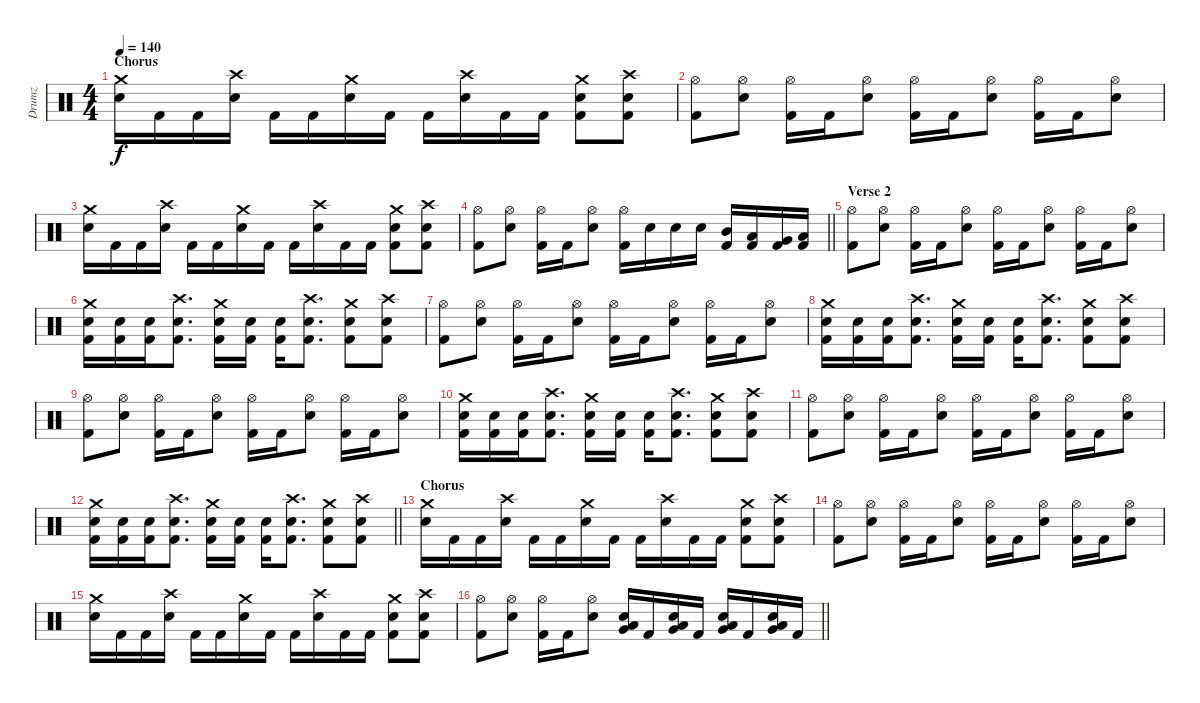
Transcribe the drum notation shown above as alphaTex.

\track ("Drumz" "Drumz") {instrument percussion}
\staff {score}
\articulation defaults
\ts (4 4)
\section ("" "Chorus")
\tempo 140
\clef neutral
\ks c
("Crash medium (hit)" "Electric Snare (hit)").16{dy f} "Kick (hit) 2".16 "Kick (hit) 2".16 ("Crash high (hit)" "Electric Snare (hit)").16 "Kick (hit) 2".16 "Kick (hit) 2".16 ("Crash medium (hit)" "Electric Snare (hit)").16 "Kick (hit) 2".16 "Kick (hit) 2".16 ("Crash high (hit)" "Electric Snare (hit)").16 "Kick (hit) 2".16 "Kick (hit) 2".16 ("Crash medium (hit)" "Electric Snare (hit)" "Kick (hit) 2").8 ("Crash high (hit)" "Electric Snare (hit)" "Kick (hit) 2").8 |
("Hi-Hat (open)" "Kick (hit) 2").8 ("Hi-Hat (open)" "Electric Snare (hit)").8 ("Hi-Hat (open)" "Kick (hit) 2").16 "Kick (hit) 2".16 ("Hi-Hat (open)" "Electric Snare (hit)").8 ("Hi-Hat (open)" "Kick (hit) 2").16 "Kick (hit) 2".16 ("Hi-Hat (open)" "Electric Snare (hit)").8 ("Hi-Hat (open)" "Kick (hit) 2").16 "Kick (hit) 2".16 ("Hi-Hat (open)" "Electric Snare (hit)").8 |
("Crash medium (hit)" "Electric Snare (hit)").16 "Kick (hit) 2".16 "Kick (hit) 2".16 ("Crash high (hit)" "Electric Snare (hit)").16 "Kick (hit) 2".16 "Kick (hit) 2".16 ("Crash medium (hit)" "Electric Snare (hit)").16 "Kick (hit) 2".16 "Kick (hit) 2".16 ("Crash high (hit)" "Electric Snare (hit)").16 "Kick (hit) 2".16 "Kick (hit) 2".16 ("Crash medium (hit)" "Electric Snare (hit)" "Kick (hit) 2").8 ("Crash high (hit)" "Electric Snare (hit)" "Kick (hit) 2").8 |
\barLineRight lightlight
("Hi-Hat (open)" "Kick (hit) 2").8 ("Hi-Hat (open)" "Electric Snare (hit)").8 ("Hi-Hat (open)" "Kick (hit) 2").16 "Kick (hit) 2".16 ("Hi-Hat (open)" "Electric Snare (hit)").8 ("Hi-Hat (open)" "Kick (hit) 2").16 "Electric Snare (hit)".16 "Electric Snare (hit)".16 "Electric Snare (hit)".16 ("Mid Tom (hit)" "Kick (hit) 2").16 ("Low Tom (hit)" "Kick (hit) 2").16 ("Very Low Tom (hit)" "Kick (hit) 2").16 ("Low Floor Tom (hit)" "Kick (hit) 2").16 |
\section ("" "Verse 2")
("Hi-Hat (open)" "Kick (hit) 2").8 ("Hi-Hat (open)" "Electric Snare (hit)").8 ("Hi-Hat (open)" "Kick (hit) 2").16 "Kick (hit) 2".16 ("Hi-Hat (open)" "Electric Snare (hit)").8 ("Hi-Hat (open)" "Kick (hit) 2").16 "Kick (hit) 2".16 ("Hi-Hat (open)" "Electric Snare (hit)").8 ("Hi-Hat (open)" "Kick (hit) 2").16 "Kick (hit) 2".16 ("Hi-Hat (open)" "Electric Snare (hit)").8 |
("Crash medium (hit)" "Electric Snare (hit)" "Kick (hit) 2").16 ("Electric Snare (hit)" "Kick (hit) 2").16 ("Electric Snare (hit)" "Kick (hit) 2").16 ("Crash high (hit)" "Electric Snare (hit)" "Kick (hit) 2").8{d} ("Crash medium (hit)" "Electric Snare (hit)" "Kick (hit) 2").16 ("Electric Snare (hit)" "Kick (hit) 2").16 ("Electric Snare (hit)" "Kick (hit) 2").16 ("Crash high (hit)" "Electric Snare (hit)" "Kick (hit) 2").8{d} ("Crash medium (hit)" "Electric Snare (hit)" "Kick (hit) 2").8 ("Crash high (hit)" "Electric Snare (hit)" "Kick (hit) 2").8 |
("Hi-Hat (open)" "Kick (hit) 2").8 ("Hi-Hat (open)" "Electric Snare (hit)").8 ("Hi-Hat (open)" "Kick (hit) 2").16 "Kick (hit) 2".16 ("Hi-Hat (open)" "Electric Snare (hit)").8 ("Hi-Hat (open)" "Kick (hit) 2").16 "Kick (hit) 2".16 ("Hi-Hat (open)" "Electric Snare (hit)").8 ("Hi-Hat (open)" "Kick (hit) 2").16 "Kick (hit) 2".16 ("Hi-Hat (open)" "Electric Snare (hit)").8 |
("Crash medium (hit)" "Electric Snare (hit)" "Kick (hit) 2").16 ("Electric Snare (hit)" "Kick (hit) 2").16 ("Electric Snare (hit)" "Kick (hit) 2").16 ("Crash high (hit)" "Electric Snare (hit)" "Kick (hit) 2").8{d} ("Crash medium (hit)" "Electric Snare (hit)" "Kick (hit) 2").16 ("Electric Snare (hit)" "Kick (hit) 2").16 ("Electric Snare (hit)" "Kick (hit) 2").16 ("Crash high (hit)" "Electric Snare (hit)" "Kick (hit) 2").8{d} ("Crash medium (hit)" "Electric Snare (hit)" "Kick (hit) 2").8 ("Crash high (hit)" "Electric Snare (hit)" "Kick (hit) 2").8 |
("Hi-Hat (open)" "Kick (hit) 2").8 ("Hi-Hat (open)" "Electric Snare (hit)").8 ("Hi-Hat (open)" "Kick (hit) 2").16 "Kick (hit) 2".16 ("Hi-Hat (open)" "Electric Snare (hit)").8 ("Hi-Hat (open)" "Kick (hit) 2").16 "Kick (hit) 2".16 ("Hi-Hat (open)" "Electric Snare (hit)").8 ("Hi-Hat (open)" "Kick (hit) 2").16 "Kick (hit) 2".16 ("Hi-Hat (open)" "Electric Snare (hit)").8 |
("Crash medium (hit)" "Electric Snare (hit)" "Kick (hit) 2").16 ("Electric Snare (hit)" "Kick (hit) 2").16 ("Electric Snare (hit)" "Kick (hit) 2").16 ("Crash high (hit)" "Electric Snare (hit)" "Kick (hit) 2").8{d} ("Crash medium (hit)" "Electric Snare (hit)" "Kick (hit) 2").16 ("Electric Snare (hit)" "Kick (hit) 2").16 ("Electric Snare (hit)" "Kick (hit) 2").16 ("Crash high (hit)" "Electric Snare (hit)" "Kick (hit) 2").8{d} ("Crash medium (hit)" "Electric Snare (hit)" "Kick (hit) 2").8 ("Crash high (hit)" "Electric Snare (hit)" "Kick (hit) 2").8 |
("Hi-Hat (open)" "Kick (hit) 2").8 ("Hi-Hat (open)" "Electric Snare (hit)").8 ("Hi-Hat (open)" "Kick (hit) 2").16 "Kick (hit) 2".16 ("Hi-Hat (open)" "Electric Snare (hit)").8 ("Hi-Hat (open)" "Kick (hit) 2").16 "Kick (hit) 2".16 ("Hi-Hat (open)" "Electric Snare (hit)").8 ("Hi-Hat (open)" "Kick (hit) 2").16 "Kick (hit) 2".16 ("Hi-Hat (open)" "Electric Snare (hit)").8 |
\barLineRight lightlight
("Crash medium (hit)" "Electric Snare (hit)" "Kick (hit) 2").16 ("Electric Snare (hit)" "Kick (hit) 2").16 ("Electric Snare (hit)" "Kick (hit) 2").16 ("Crash high (hit)" "Electric Snare (hit)" "Kick (hit) 2").8{d} ("Crash medium (hit)" "Electric Snare (hit)" "Kick (hit) 2").16 ("Electric Snare (hit)" "Kick (hit) 2").16 ("Electric Snare (hit)" "Kick (hit) 2").16 ("Crash high (hit)" "Electric Snare (hit)" "Kick (hit) 2").8{d} ("Crash medium (hit)" "Electric Snare (hit)" "Kick (hit) 2").8 ("Crash high (hit)" "Electric Snare (hit)" "Kick (hit) 2").8 |
\section ("" "Chorus")
("Crash medium (hit)" "Electric Snare (hit)").16 "Kick (hit) 2".16 "Kick (hit) 2".16 ("Crash high (hit)" "Electric Snare (hit)").16 "Kick (hit) 2".16 "Kick (hit) 2".16 ("Crash medium (hit)" "Electric Snare (hit)").16 "Kick (hit) 2".16 "Kick (hit) 2".16 ("Crash high (hit)" "Electric Snare (hit)").16 "Kick (hit) 2".16 "Kick (hit) 2".16 ("Crash medium (hit)" "Electric Snare (hit)" "Kick (hit) 2").8 ("Crash high (hit)" "Electric Snare (hit)" "Kick (hit) 2").8 |
("Hi-Hat (open)" "Kick (hit) 2").8 ("Hi-Hat (open)" "Electric Snare (hit)").8 ("Hi-Hat (open)" "Kick (hit) 2").16 "Kick (hit) 2".16 ("Hi-Hat (open)" "Electric Snare (hit)").8 ("Hi-Hat (open)" "Kick (hit) 2").16 "Kick (hit) 2".16 ("Hi-Hat (open)" "Electric Snare (hit)").8 ("Hi-Hat (open)" "Kick (hit) 2").16 "Kick (hit) 2".16 ("Hi-Hat (open)" "Electric Snare (hit)").8 |
("Crash medium (hit)" "Electric Snare (hit)").16 "Kick (hit) 2".16 "Kick (hit) 2".16 ("Crash high (hit)" "Electric Snare (hit)").16 "Kick (hit) 2".16 "Kick (hit) 2".16 ("Crash medium (hit)" "Electric Snare (hit)").16 "Kick (hit) 2".16 "Kick (hit) 2".16 ("Crash high (hit)" "Electric Snare (hit)").16 "Kick (hit) 2".16 "Kick (hit) 2".16 ("Crash medium (hit)" "Electric Snare (hit)" "Kick (hit) 2").8 ("Crash high (hit)" "Electric Snare (hit)" "Kick (hit) 2").8 |
\barLineRight lightlight
("Hi-Hat (open)" "Kick (hit) 2").8 ("Hi-Hat (open)" "Electric Snare (hit)").8 ("Hi-Hat (open)" "Kick (hit) 2").16 "Kick (hit) 2".16 ("Hi-Hat (open)" "Electric Snare (hit)").8 ("Very Low Tom (hit)" "Low Floor Tom (hit)" "Electric Snare (hit)").16 "Kick (hit) 2".16 ("Very Low Tom (hit)" "Low Floor Tom (hit)" "Electric Snare (hit)").16 "Kick (hit) 2".16 ("Very Low Tom (hit)" "Low Floor Tom (hit)" "Electric Snare (hit)").16 "Kick (hit) 2".16 ("Very Low Tom (hit)" "Low Floor Tom (hit)" "Electric Snare (hit)").16 "Kick (hit) 2".16
